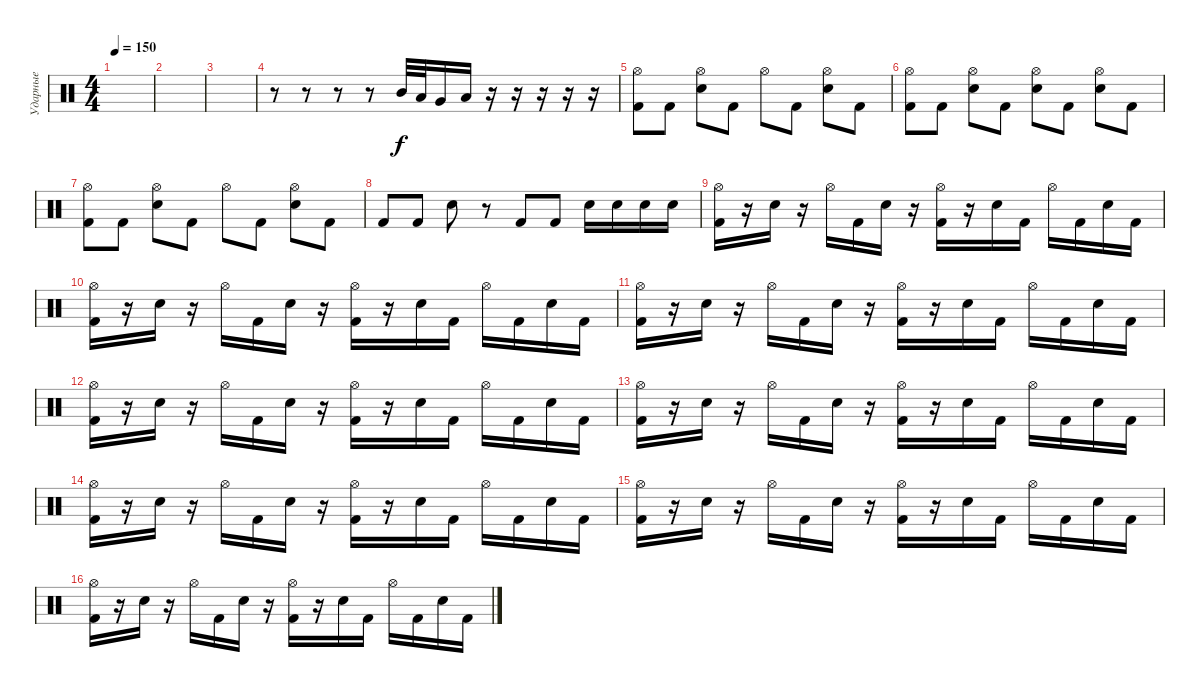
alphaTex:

\track ("Ударные" "Ударные") {instrument percussion}
\staff {score}
\articulation defaults
\ts (4 4)
\tempo 150
\clef neutral
\ks c
|
|
|
r.8 r.8 r.8 r.8 "Mid Tom (hit)".32 "Low Tom (hit)".32 "Very Low Tom (hit)".16 "Low Floor Tom (hit)".16 r.16 r.16 r.16 r.16 r.16 |
("Hi-Hat (open)" "Kick (hit) 2").8 "Kick (hit) 2".8 ("Hi-Hat (open)" "Electric Snare (hit)").8 "Kick (hit) 2".8 "Hi-Hat (open)".8 "Kick (hit) 2".8 ("Hi-Hat (open)" "Electric Snare (hit)").8 "Kick (hit) 2".8 |
("Hi-Hat (open)" "Kick (hit) 2").8 "Kick (hit) 2".8 ("Hi-Hat (open)" "Electric Snare (hit)").8 "Kick (hit) 2".8 ("Hi-Hat (open)" "Electric Snare (hit)").8 "Kick (hit) 2".8 ("Hi-Hat (open)" "Electric Snare (hit)").8 "Kick (hit) 2".8 |
("Hi-Hat (open)" "Kick (hit) 2").8 "Kick (hit) 2".8 ("Hi-Hat (open)" "Electric Snare (hit)").8 "Kick (hit) 2".8 "Hi-Hat (open)".8 "Kick (hit) 2".8 ("Hi-Hat (open)" "Electric Snare (hit)").8 "Kick (hit) 2".8 |
"Kick (hit) 2".8 "Kick (hit) 2".8 "Electric Snare (hit)".8 r.8 "Kick (hit) 2".8 "Kick (hit) 2".8 "Electric Snare (hit)".16 "Electric Snare (hit)".16 "Electric Snare (hit)".16 "Electric Snare (hit)".16 |
("Hi-Hat (open)" "Kick (hit) 2").16 r.16 "Electric Snare (hit)".16 r.16 "Hi-Hat (open)".16 "Kick (hit) 2".16 "Electric Snare (hit)".16 r.16 ("Hi-Hat (open)" "Kick (hit) 2").16 r.16 "Electric Snare (hit)".16 "Kick (hit) 2".16 "Hi-Hat (open)".16 "Kick (hit) 2".16 "Electric Snare (hit)".16 "Kick (hit) 2".16 |
("Hi-Hat (open)" "Kick (hit) 2").16 r.16 "Electric Snare (hit)".16 r.16 "Hi-Hat (open)".16 "Kick (hit) 2".16 "Electric Snare (hit)".16 r.16 ("Hi-Hat (open)" "Kick (hit) 2").16 r.16 "Electric Snare (hit)".16 "Kick (hit) 2".16 "Hi-Hat (open)".16 "Kick (hit) 2".16 "Electric Snare (hit)".16 "Kick (hit) 2".16 |
("Hi-Hat (open)" "Kick (hit) 2").16 r.16 "Electric Snare (hit)".16 r.16 "Hi-Hat (open)".16 "Kick (hit) 2".16 "Electric Snare (hit)".16 r.16 ("Hi-Hat (open)" "Kick (hit) 2").16 r.16 "Electric Snare (hit)".16 "Kick (hit) 2".16 "Hi-Hat (open)".16 "Kick (hit) 2".16 "Electric Snare (hit)".16 "Kick (hit) 2".16 |
("Hi-Hat (open)" "Kick (hit) 2").16 r.16 "Electric Snare (hit)".16 r.16 "Hi-Hat (open)".16 "Kick (hit) 2".16 "Electric Snare (hit)".16 r.16 ("Hi-Hat (open)" "Kick (hit) 2").16 r.16 "Electric Snare (hit)".16 "Kick (hit) 2".16 "Hi-Hat (open)".16 "Kick (hit) 2".16 "Electric Snare (hit)".16 "Kick (hit) 2".16 |
("Hi-Hat (open)" "Kick (hit) 2").16 r.16 "Electric Snare (hit)".16 r.16 "Hi-Hat (open)".16 "Kick (hit) 2".16 "Electric Snare (hit)".16 r.16 ("Hi-Hat (open)" "Kick (hit) 2").16 r.16 "Electric Snare (hit)".16 "Kick (hit) 2".16 "Hi-Hat (open)".16 "Kick (hit) 2".16 "Electric Snare (hit)".16 "Kick (hit) 2".16 |
("Hi-Hat (open)" "Kick (hit) 2").16 r.16 "Electric Snare (hit)".16 r.16 "Hi-Hat (open)".16 "Kick (hit) 2".16 "Electric Snare (hit)".16 r.16 ("Hi-Hat (open)" "Kick (hit) 2").16 r.16 "Electric Snare (hit)".16 "Kick (hit) 2".16 "Hi-Hat (open)".16 "Kick (hit) 2".16 "Electric Snare (hit)".16 "Kick (hit) 2".16 |
("Hi-Hat (open)" "Kick (hit) 2").16 r.16 "Electric Snare (hit)".16 r.16 "Hi-Hat (open)".16 "Kick (hit) 2".16 "Electric Snare (hit)".16 r.16 ("Hi-Hat (open)" "Kick (hit) 2").16 r.16 "Electric Snare (hit)".16 "Kick (hit) 2".16 "Hi-Hat (open)".16 "Kick (hit) 2".16 "Electric Snare (hit)".16 "Kick (hit) 2".16 |
("Hi-Hat (open)" "Kick (hit) 2").16 r.16 "Electric Snare (hit)".16 r.16 "Hi-Hat (open)".16 "Kick (hit) 2".16 "Electric Snare (hit)".16 r.16 ("Hi-Hat (open)" "Kick (hit) 2").16 r.16 "Electric Snare (hit)".16 "Kick (hit) 2".16 "Hi-Hat (open)".16 "Kick (hit) 2".16 "Electric Snare (hit)".16 "Kick (hit) 2".16
